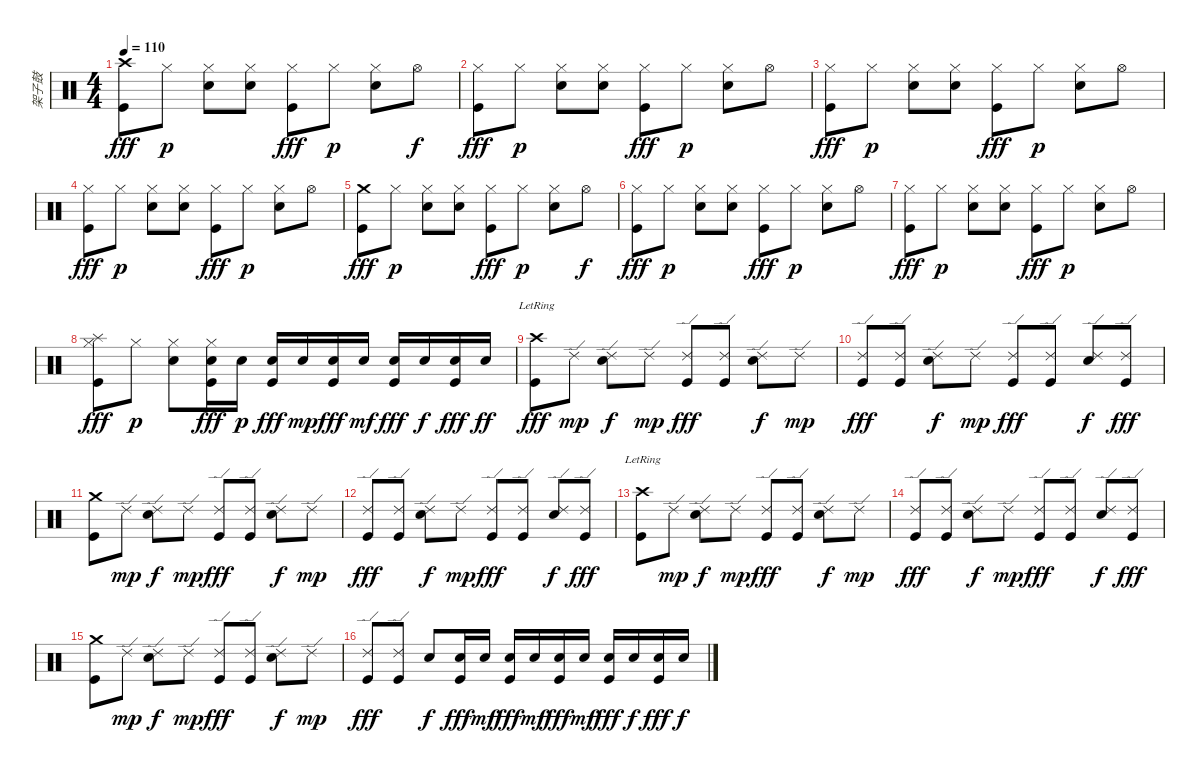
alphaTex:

\track ("架子鼓" "架子鼓") {instrument percussion}
\staff {score}
\articulation defaults
\ts (4 4)
\tempo 110
\clef neutral
\ks c
("Crash high (hit)" "Kick (hit)").8{dy fff} "Hi-Hat (closed)".8{dy p} ("Electric Snare (hit)" "Hi-Hat (closed)").8 ("Electric Snare (hit)" "Hi-Hat (closed)").8 ("Hi-Hat (closed)" "Kick (hit)").8{dy fff} "Hi-Hat (closed)".8{dy p} ("Electric Snare (hit)" "Hi-Hat (closed)").8 "Hi-Hat (open)".8{dy f} |
("Hi-Hat (closed)" "Kick (hit)").8{dy fff} "Hi-Hat (closed)".8{dy p} ("Electric Snare (hit)" "Hi-Hat (closed)").8 ("Electric Snare (hit)" "Hi-Hat (closed)").8 ("Hi-Hat (closed)" "Kick (hit)").8{dy fff} "Hi-Hat (closed)".8{dy p} ("Electric Snare (hit)" "Hi-Hat (closed)").8 "Hi-Hat (open)".8 |
("Hi-Hat (closed)" "Kick (hit)").8{dy fff} "Hi-Hat (closed)".8{dy p} ("Electric Snare (hit)" "Hi-Hat (closed)").8 ("Electric Snare (hit)" "Hi-Hat (closed)").8 ("Hi-Hat (closed)" "Kick (hit)").8{dy fff} "Hi-Hat (closed)".8{dy p} ("Electric Snare (hit)" "Hi-Hat (closed)").8 "Hi-Hat (open)".8 |
("Hi-Hat (closed)" "Kick (hit)").8{dy fff} "Hi-Hat (closed)".8{dy p} ("Electric Snare (hit)" "Hi-Hat (closed)").8 ("Electric Snare (hit)" "Hi-Hat (closed)").8 ("Hi-Hat (closed)" "Kick (hit)").8{dy fff} "Hi-Hat (closed)".8{dy p} ("Electric Snare (hit)" "Hi-Hat (closed)").8 "Hi-Hat (open)".8 |
("Crash medium (hit)" "Kick (hit)").8{dy fff} "Hi-Hat (closed)".8{dy p} ("Electric Snare (hit)" "Hi-Hat (closed)").8 ("Electric Snare (hit)" "Hi-Hat (closed)").8 ("Hi-Hat (closed)" "Kick (hit)").8{dy fff} "Hi-Hat (closed)".8{dy p} ("Electric Snare (hit)" "Hi-Hat (closed)").8 "Hi-Hat (open)".8{dy f} |
("Hi-Hat (closed)" "Kick (hit)").8{dy fff} "Hi-Hat (closed)".8{dy p} ("Electric Snare (hit)" "Hi-Hat (closed)").8 ("Electric Snare (hit)" "Hi-Hat (closed)").8 ("Hi-Hat (closed)" "Kick (hit)").8{dy fff} "Hi-Hat (closed)".8{dy p} ("Electric Snare (hit)" "Hi-Hat (closed)").8 "Hi-Hat (open)".8 |
("Hi-Hat (closed)" "Kick (hit)").8{dy fff} "Hi-Hat (closed)".8{dy p} ("Electric Snare (hit)" "Hi-Hat (closed)").8 ("Electric Snare (hit)" "Hi-Hat (closed)").8 ("Hi-Hat (closed)" "Kick (hit)").8{dy fff} "Hi-Hat (closed)".8{dy p} ("Electric Snare (hit)" "Hi-Hat (closed)").8 "Hi-Hat (open)".8 |
("Splash (hit)" "Hi-Hat (closed)" "Kick (hit)").8{dy fff} "Hi-Hat (closed)".8{dy p} ("Electric Snare (hit)" "Hi-Hat (closed)").8 ("Electric Snare (hit)" "Hi-Hat (closed)" "Kick (hit)").16{dy fff} "Electric Snare (hit)".16{dy p} ("Electric Snare (hit)" "Kick (hit)").16{dy fff} "Electric Snare (hit)".16{dy mp} ("Electric Snare (hit)" "Kick (hit)").16{dy fff} "Electric Snare (hit)".16{dy mf} ("Electric Snare (hit)" "Kick (hit)").16{dy fff} "Electric Snare (hit)".16{dy f} ("Electric Snare (hit)" "Kick (hit)").16{dy fff} "Electric Snare (hit)".16{dy ff} |
("Crash high (hit)"{lr} "Kick (hit)").8{dy fff volume 16} "Ride (edge) 2".8{dy mp} ("Ride (edge) 2" "Electric Snare (hit)").8{dy f} "Ride (edge) 2".8{dy mp} ("Ride (edge) 2" "Kick (hit)").8{dy fff} ("Ride (edge) 2" "Kick (hit)").8 ("Ride (edge) 2" "Electric Snare (hit)").8{dy f} "Ride (edge) 2".8{dy mp} |
("Ride (edge) 2" "Kick (hit)").8{dy fff} ("Ride (edge) 2" "Kick (hit)").8 ("Ride (edge) 2" "Electric Snare (hit)").8{dy f} "Ride (edge) 2".8{dy mp} ("Ride (edge) 2" "Kick (hit)").8{dy fff} ("Ride (edge) 2" "Kick (hit)").8 ("Ride (edge) 2" "Electric Snare (hit)").8{dy f} ("Ride (edge) 2" "Kick (hit)").8{dy fff} |
("Crash medium (hit)" "Kick (hit)").8 "Ride (edge) 2".8{dy mp} ("Ride (edge) 2" "Electric Snare (hit)").8{dy f} "Ride (edge) 2".8{dy mp} ("Ride (edge) 2" "Kick (hit)").8{dy fff} ("Ride (edge) 2" "Kick (hit)").8 ("Ride (edge) 2" "Electric Snare (hit)").8{dy f} "Ride (edge) 2".8{dy mp} |
("Ride (edge) 2" "Kick (hit)").8{dy fff} ("Ride (edge) 2" "Kick (hit)").8 ("Ride (edge) 2" "Electric Snare (hit)").8{dy f} "Ride (edge) 2".8{dy mp} ("Ride (edge) 2" "Kick (hit)").8{dy fff} ("Ride (edge) 2" "Kick (hit)").8 ("Ride (edge) 2" "Electric Snare (hit)").8{dy f} ("Ride (edge) 2" "Kick (hit)").8{dy fff} |
("Crash high (hit)"{lr} "Kick (hit)").8 "Ride (edge) 2".8{dy mp} ("Ride (edge) 2" "Electric Snare (hit)").8{dy f} "Ride (edge) 2".8{dy mp} ("Ride (edge) 2" "Kick (hit)").8{dy fff} ("Ride (edge) 2" "Kick (hit)").8 ("Ride (edge) 2" "Electric Snare (hit)").8{dy f} "Ride (edge) 2".8{dy mp} |
("Ride (edge) 2" "Kick (hit)").8{dy fff} ("Ride (edge) 2" "Kick (hit)").8 ("Ride (edge) 2" "Electric Snare (hit)").8{dy f} "Ride (edge) 2".8{dy mp} ("Ride (edge) 2" "Kick (hit)").8{dy fff} ("Ride (edge) 2" "Kick (hit)").8 ("Ride (edge) 2" "Electric Snare (hit)").8{dy f} ("Ride (edge) 2" "Kick (hit)").8{dy fff} |
("Crash medium (hit)" "Kick (hit)").8 "Ride (edge) 2".8{dy mp} ("Ride (edge) 2" "Electric Snare (hit)").8{dy f} "Ride (edge) 2".8{dy mp} ("Ride (edge) 2" "Kick (hit)").8{dy fff} ("Ride (edge) 2" "Kick (hit)").8 ("Ride (edge) 2" "Electric Snare (hit)").8{dy f} "Ride (edge) 2".8{dy mp} |
("Ride (edge) 2" "Kick (hit)").8{dy fff} ("Ride (edge) 2" "Kick (hit)").8 "Electric Snare (hit)".8{dy f} ("Electric Snare (hit)" "Kick (hit)").16{dy fff} "Electric Snare (hit)".16{dy mf} ("Electric Snare (hit)" "Kick (hit)").16{dy fff} "Electric Snare (hit)".16{dy mf} ("Electric Snare (hit)" "Kick (hit)").16{dy fff} "Electric Snare (hit)".16{dy mf} ("Electric Snare (hit)" "Kick (hit)").16{dy fff} "Electric Snare (hit)".16{dy f} ("Electric Snare (hit)" "Kick (hit)").16{dy fff} "Electric Snare (hit)".16{dy f}
